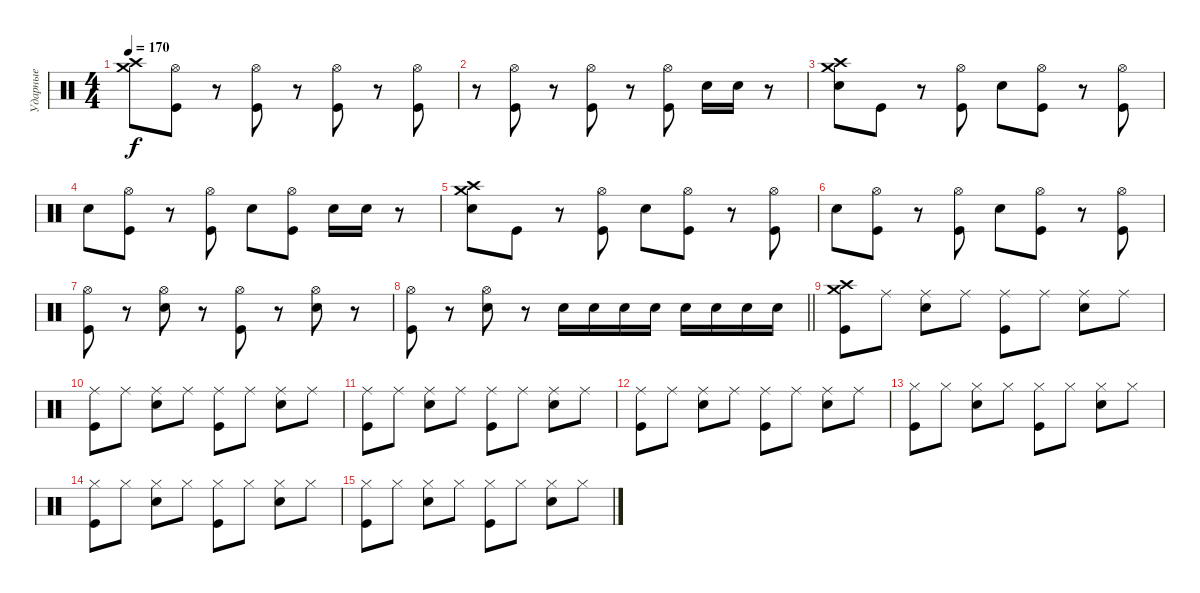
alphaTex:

\track ("Ударные" "Ударные") {instrument percussion}
\staff {score}
\articulation defaults
\ts (4 4)
\tempo 170
\clef neutral
\ks c
("Crash medium (hit)" "Crash high (hit)").8{dy f} ("Hi-Hat (open)" "Kick (hit)").8 r.8 ("Hi-Hat (open)" "Kick (hit)").8 r.8 ("Hi-Hat (open)" "Kick (hit)").8 r.8 ("Hi-Hat (open)" "Kick (hit)").8 |
r.8 ("Hi-Hat (open)" "Kick (hit)").8 r.8 ("Hi-Hat (open)" "Kick (hit)").8 r.8 ("Hi-Hat (open)" "Kick (hit)").8 "Electric Snare (hit)".16 "Electric Snare (hit)".16 r.8 |
("Crash high (hit)" "Crash medium (hit)" "Electric Snare (hit)").8 "Kick (hit)".8 r.8 ("Hi-Hat (open)" "Kick (hit)").8 "Electric Snare (hit)".8 ("Hi-Hat (open)" "Kick (hit)").8 r.8 ("Hi-Hat (open)" "Kick (hit)").8 |
"Electric Snare (hit)".8 ("Hi-Hat (open)" "Kick (hit)").8 r.8 ("Hi-Hat (open)" "Kick (hit)").8 "Electric Snare (hit)".8 ("Hi-Hat (open)" "Kick (hit)").8 "Electric Snare (hit)".16 "Electric Snare (hit)".16 r.8 |
("Crash high (hit)" "Crash medium (hit)" "Electric Snare (hit)").8 "Kick (hit)".8 r.8 ("Hi-Hat (open)" "Kick (hit)").8 "Electric Snare (hit)".8 ("Hi-Hat (open)" "Kick (hit)").8 r.8 ("Hi-Hat (open)" "Kick (hit)").8 |
"Electric Snare (hit)".8 ("Hi-Hat (open)" "Kick (hit)").8 r.8 ("Hi-Hat (open)" "Kick (hit)").8 "Electric Snare (hit)".8 ("Hi-Hat (open)" "Kick (hit)").8 r.8 ("Hi-Hat (open)" "Kick (hit)").8 |
("Hi-Hat (open)" "Kick (hit)").8 r.8 ("Hi-Hat (open)" "Electric Snare (hit)").8 r.8 ("Hi-Hat (open)" "Kick (hit)").8 r.8 ("Hi-Hat (open)" "Electric Snare (hit)").8 r.8 |
\barLineRight lightlight
("Hi-Hat (open)" "Kick (hit)").8 r.8 ("Hi-Hat (open)" "Electric Snare (hit)").8 r.8 "Electric Snare (hit)".16 "Electric Snare (hit)".16 "Electric Snare (hit)".16 "Electric Snare (hit)".16 "Electric Snare (hit)".16 "Electric Snare (hit)".16 "Electric Snare (hit)".16 "Electric Snare (hit)".16 |
("Crash medium (hit)" "Kick (hit)" "Crash high (hit)").8 "Ride (middle)".8 ("Ride (middle)" "Electric Snare (hit)").8 "Ride (middle)".8 ("Ride (middle)" "Kick (hit)").8 "Ride (middle)".8 ("Ride (middle)" "Electric Snare (hit)").8 "Ride (middle)".8 |
("Ride (middle)" "Kick (hit)").8 "Ride (middle)".8 ("Ride (middle)" "Electric Snare (hit)").8 "Ride (middle)".8 ("Ride (middle)" "Kick (hit)").8 "Ride (middle)".8 ("Ride (middle)" "Electric Snare (hit)").8 "Ride (middle)".8 |
("Ride (middle)" "Kick (hit)").8 "Ride (middle)".8 ("Ride (middle)" "Electric Snare (hit)").8 "Ride (middle)".8 ("Ride (middle)" "Kick (hit)").8 "Ride (middle)".8 ("Ride (middle)" "Electric Snare (hit)").8 "Ride (middle)".8 |
("Ride (middle)" "Kick (hit)").8 "Ride (middle)".8 ("Ride (middle)" "Electric Snare (hit)").8 "Ride (middle)".8 ("Ride (middle)" "Kick (hit)").8 "Ride (middle)".8 ("Ride (middle)" "Electric Snare (hit)").8 "Ride (middle)".8 |
("Hi-Hat (closed)" "Kick (hit)").8 "Hi-Hat (closed)".8 ("Hi-Hat (closed)" "Electric Snare (hit)").8 "Hi-Hat (closed)".8 ("Hi-Hat (closed)" "Kick (hit)").8 "Hi-Hat (closed)".8 ("Hi-Hat (closed)" "Electric Snare (hit)").8 "Hi-Hat (closed)".8 |
("Hi-Hat (closed)" "Kick (hit)").8 "Hi-Hat (closed)".8 ("Hi-Hat (closed)" "Electric Snare (hit)").8 "Hi-Hat (closed)".8 ("Hi-Hat (closed)" "Kick (hit)").8 "Hi-Hat (closed)".8 ("Hi-Hat (closed)" "Electric Snare (hit)").8 "Hi-Hat (closed)".8 |
("Hi-Hat (closed)" "Kick (hit)").8 "Hi-Hat (closed)".8 ("Hi-Hat (closed)" "Electric Snare (hit)").8 "Hi-Hat (closed)".8 ("Hi-Hat (closed)" "Kick (hit)").8 "Hi-Hat (closed)".8 ("Hi-Hat (closed)" "Electric Snare (hit)").8 "Hi-Hat (closed)".8
